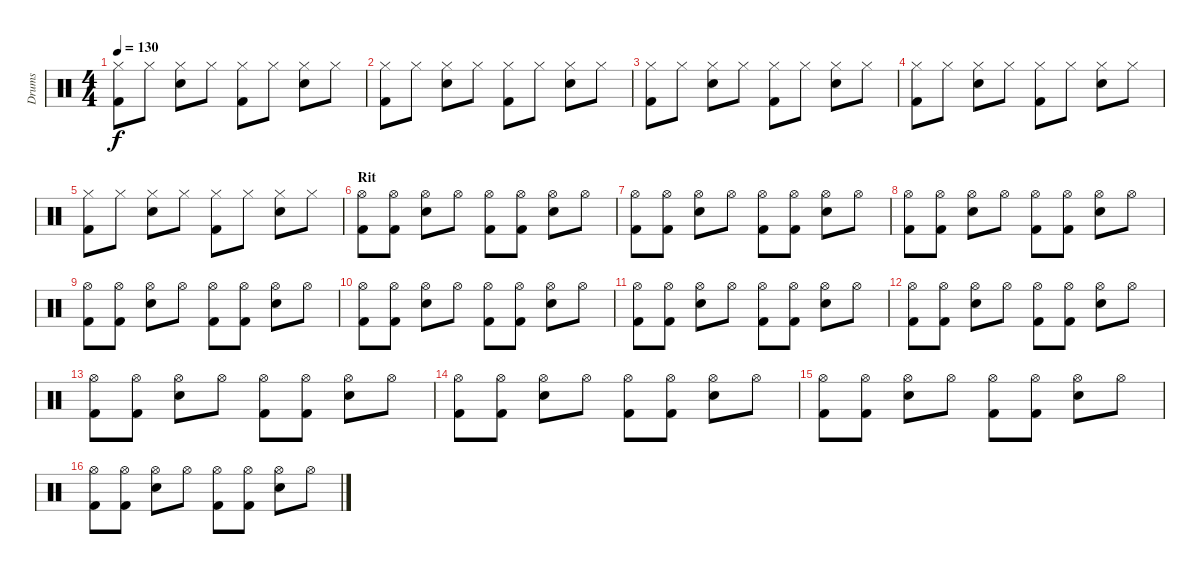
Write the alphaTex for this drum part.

\track ("Drums" "Drums") {instrument percussion}
\staff {score}
\articulation defaults
\ts (4 4)
\tempo 130
\clef neutral
\ks c
("Hi-Hat (closed)" "Kick (hit) 2").8{dy f} "Hi-Hat (closed)".8 ("Hi-Hat (closed)" "Snare (hit) 2").8 "Hi-Hat (closed)".8 ("Hi-Hat (closed)" "Kick (hit) 2").8 "Hi-Hat (closed)".8 ("Hi-Hat (closed)" "Snare (hit) 2").8 "Hi-Hat (closed)".8 |
("Hi-Hat (closed)" "Kick (hit) 2").8 "Hi-Hat (closed)".8 ("Hi-Hat (closed)" "Snare (hit) 2").8 "Hi-Hat (closed)".8 ("Hi-Hat (closed)" "Kick (hit) 2").8 "Hi-Hat (closed)".8 ("Hi-Hat (closed)" "Snare (hit) 2").8 "Hi-Hat (closed)".8 |
("Hi-Hat (closed)" "Kick (hit) 2").8 "Hi-Hat (closed)".8 ("Hi-Hat (closed)" "Snare (hit) 2").8 "Hi-Hat (closed)".8 ("Hi-Hat (closed)" "Kick (hit) 2").8 "Hi-Hat (closed)".8 ("Hi-Hat (closed)" "Snare (hit) 2").8 "Hi-Hat (closed)".8 |
("Hi-Hat (closed)" "Kick (hit) 2").8 "Hi-Hat (closed)".8 ("Hi-Hat (closed)" "Snare (hit) 2").8 "Hi-Hat (closed)".8 ("Hi-Hat (closed)" "Kick (hit) 2").8 "Hi-Hat (closed)".8 ("Hi-Hat (closed)" "Snare (hit) 2").8 "Hi-Hat (closed)".8 |
("Hi-Hat (closed)" "Kick (hit) 2").8 "Hi-Hat (closed)".8 ("Hi-Hat (closed)" "Snare (hit) 2").8 "Hi-Hat (closed)".8 ("Hi-Hat (closed)" "Kick (hit) 2").8 "Hi-Hat (closed)".8 ("Hi-Hat (closed)" "Snare (hit) 2").8 "Hi-Hat (closed)".8 |
\section ("" "Rit")
("Hi-Hat (open)" "Kick (hit) 2").8 ("Hi-Hat (open)" "Kick (hit) 2").8 ("Hi-Hat (open)" "Snare (hit) 2").8 "Hi-Hat (open)".8 ("Hi-Hat (open)" "Kick (hit) 2").8 ("Hi-Hat (open)" "Kick (hit) 2").8 ("Hi-Hat (open)" "Snare (hit) 2").8 "Hi-Hat (open)".8 |
("Hi-Hat (open)" "Kick (hit) 2").8 ("Hi-Hat (open)" "Kick (hit) 2").8 ("Hi-Hat (open)" "Snare (hit) 2").8 "Hi-Hat (open)".8 ("Hi-Hat (open)" "Kick (hit) 2").8 ("Hi-Hat (open)" "Kick (hit) 2").8 ("Hi-Hat (open)" "Snare (hit) 2").8 "Hi-Hat (open)".8 |
("Hi-Hat (open)" "Kick (hit) 2").8 ("Hi-Hat (open)" "Kick (hit) 2").8 ("Hi-Hat (open)" "Snare (hit) 2").8 "Hi-Hat (open)".8 ("Hi-Hat (open)" "Kick (hit) 2").8 ("Hi-Hat (open)" "Kick (hit) 2").8 ("Hi-Hat (open)" "Snare (hit) 2").8 "Hi-Hat (open)".8 |
("Hi-Hat (open)" "Kick (hit) 2").8 ("Hi-Hat (open)" "Kick (hit) 2").8 ("Hi-Hat (open)" "Snare (hit) 2").8 "Hi-Hat (open)".8 ("Hi-Hat (open)" "Kick (hit) 2").8 ("Hi-Hat (open)" "Kick (hit) 2").8 ("Hi-Hat (open)" "Snare (hit) 2").8 "Hi-Hat (open)".8 |
("Hi-Hat (open)" "Kick (hit) 2").8 ("Hi-Hat (open)" "Kick (hit) 2").8 ("Hi-Hat (open)" "Snare (hit) 2").8 "Hi-Hat (open)".8 ("Hi-Hat (open)" "Kick (hit) 2").8 ("Hi-Hat (open)" "Kick (hit) 2").8 ("Hi-Hat (open)" "Snare (hit) 2").8 "Hi-Hat (open)".8 |
("Hi-Hat (open)" "Kick (hit) 2").8 ("Hi-Hat (open)" "Kick (hit) 2").8 ("Hi-Hat (open)" "Snare (hit) 2").8 "Hi-Hat (open)".8 ("Hi-Hat (open)" "Kick (hit) 2").8 ("Hi-Hat (open)" "Kick (hit) 2").8 ("Hi-Hat (open)" "Snare (hit) 2").8 "Hi-Hat (open)".8 |
("Hi-Hat (open)" "Kick (hit) 2").8 ("Hi-Hat (open)" "Kick (hit) 2").8 ("Hi-Hat (open)" "Snare (hit) 2").8 "Hi-Hat (open)".8 ("Hi-Hat (open)" "Kick (hit) 2").8 ("Hi-Hat (open)" "Kick (hit) 2").8 ("Hi-Hat (open)" "Snare (hit) 2").8 "Hi-Hat (open)".8 |
("Hi-Hat (open)" "Kick (hit) 2").8 ("Hi-Hat (open)" "Kick (hit) 2").8 ("Hi-Hat (open)" "Snare (hit) 2").8 "Hi-Hat (open)".8 ("Hi-Hat (open)" "Kick (hit) 2").8 ("Hi-Hat (open)" "Kick (hit) 2").8 ("Hi-Hat (open)" "Snare (hit) 2").8 "Hi-Hat (open)".8 |
("Hi-Hat (open)" "Kick (hit) 2").8 ("Hi-Hat (open)" "Kick (hit) 2").8 ("Hi-Hat (open)" "Snare (hit) 2").8 "Hi-Hat (open)".8 ("Hi-Hat (open)" "Kick (hit) 2").8 ("Hi-Hat (open)" "Kick (hit) 2").8 ("Hi-Hat (open)" "Snare (hit) 2").8 "Hi-Hat (open)".8 |
("Hi-Hat (open)" "Kick (hit) 2").8 ("Hi-Hat (open)" "Kick (hit) 2").8 ("Hi-Hat (open)" "Snare (hit) 2").8 "Hi-Hat (open)".8 ("Hi-Hat (open)" "Kick (hit) 2").8 ("Hi-Hat (open)" "Kick (hit) 2").8 ("Hi-Hat (open)" "Snare (hit) 2").8 "Hi-Hat (open)".8 |
("Hi-Hat (open)" "Kick (hit) 2").8 ("Hi-Hat (open)" "Kick (hit) 2").8 ("Hi-Hat (open)" "Snare (hit) 2").8 "Hi-Hat (open)".8 ("Hi-Hat (open)" "Kick (hit) 2").8 ("Hi-Hat (open)" "Kick (hit) 2").8 ("Hi-Hat (open)" "Snare (hit) 2").8 "Hi-Hat (open)".8
